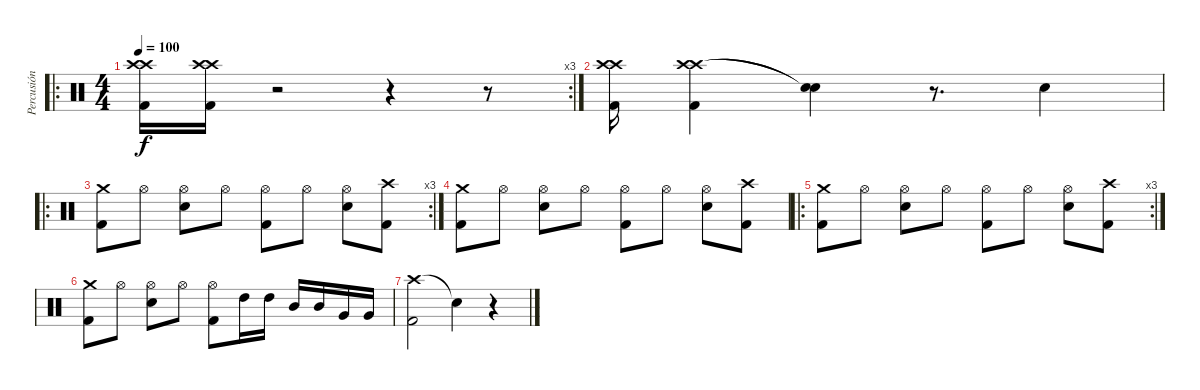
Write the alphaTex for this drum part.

\track ("Percusión" "Percusión") {instrument percussion}
\staff {score}
\articulation defaults
\ro
\rc 3
\ts (4 4)
\tempo 100
\clef neutral
\ks c
("Crash high (hit)" "Crash high (hit)" "Kick (hit) 2").16{dy f} ("Crash high (hit)" "Crash high (hit)" "Kick (hit) 2").16 r.2 r.4 r.8 |
("Crash high (hit)" "Crash high (hit)" "Kick (hit) 2").16 ("Crash high (hit)" "Crash high (hit)" "Kick (hit) 2").4 ("Snare (hit)"{t} "Snare (hit)"{t}).4 r.8{d} "Electric Snare (hit)".4 |
\ro
\rc 3
("Crash medium (hit)" "Kick (hit) 2").8 "Hi-Hat (open)".8 ("Hi-Hat (open)" "Electric Snare (hit)").8 "Hi-Hat (open)".8 ("Hi-Hat (open)" "Kick (hit) 2").8 "Hi-Hat (open)".8 ("Hi-Hat (open)" "Electric Snare (hit)").8 ("Crash high (hit)" "Kick (hit) 2").8 |
("Crash medium (hit)" "Kick (hit) 2").8 "Hi-Hat (open)".8 ("Hi-Hat (open)" "Electric Snare (hit)").8 "Hi-Hat (open)".8 ("Hi-Hat (open)" "Kick (hit) 2").8 "Hi-Hat (open)".8 ("Hi-Hat (open)" "Electric Snare (hit)").8 ("Crash high (hit)" "Kick (hit) 2").8 |
\ro
\rc 3
("Crash medium (hit)" "Kick (hit) 2").8 "Hi-Hat (open)".8 ("Hi-Hat (open)" "Electric Snare (hit)").8 "Hi-Hat (open)".8 ("Hi-Hat (open)" "Kick (hit) 2").8 "Hi-Hat (open)".8 ("Hi-Hat (open)" "Electric Snare (hit)").8 ("Crash high (hit)" "Kick (hit) 2").8 |
("Crash medium (hit)" "Kick (hit) 2").8 "Hi-Hat (open)".8 ("Hi-Hat (open)" "Electric Snare (hit)").8 "Hi-Hat (open)".8 ("Hi-Hat (open)" "Kick (hit) 2").8 "High Tom (hit)".16 "High Tom (hit)".16 "Mid Tom (hit)".16 "Mid Tom (hit)".16 "Very Low Tom (hit)".16 "Very Low Tom (hit)".16 |
("Crash high (hit)" "Kick (hit) 2").2 "Snare (hit)"{t}.4 r.4
